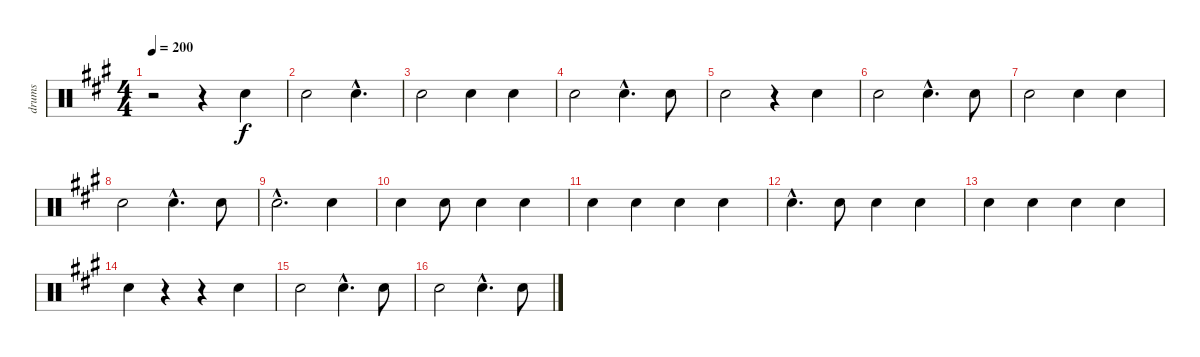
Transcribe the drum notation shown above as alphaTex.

\track ("drums" "drums") {instrument percussion}
\staff {score}
\articulation defaults
\ts (4 4)
\tempo 200
\clef neutral
\ks a
r.2{dy f} r.4 "Electric Snare (hit)".4 |
"Electric Snare (hit)".2 "Electric Snare (hit)"{hac}.4{d} |
"Electric Snare (hit)".2 "Electric Snare (hit)".4 "Electric Snare (hit)".4 |
"Electric Snare (hit)".2 "Electric Snare (hit)"{hac}.4{d} "Electric Snare (hit)".8 |
"Electric Snare (hit)".2 r.4 "Electric Snare (hit)".4 |
"Electric Snare (hit)".2 "Electric Snare (hit)"{hac}.4{d} "Electric Snare (hit)".8 |
"Electric Snare (hit)".2 "Electric Snare (hit)".4 "Electric Snare (hit)".4 |
"Electric Snare (hit)".2 "Electric Snare (hit)"{hac}.4{d} "Electric Snare (hit)".8 |
"Electric Snare (hit)"{hac}.2{d} "Electric Snare (hit)".4 |
"Electric Snare (hit)".4 "Electric Snare (hit)".8 "Electric Snare (hit)".4 "Electric Snare (hit)".4 |
"Electric Snare (hit)".4 "Electric Snare (hit)".4 "Electric Snare (hit)".4 "Electric Snare (hit)".4 |
"Electric Snare (hit)"{hac}.4{d} "Electric Snare (hit)".8 "Electric Snare (hit)".4 "Electric Snare (hit)".4 |
"Electric Snare (hit)".4 "Electric Snare (hit)".4 "Electric Snare (hit)".4 "Electric Snare (hit)".4 |
"Electric Snare (hit)".4 r.4 r.4 "Electric Snare (hit)".4 |
"Electric Snare (hit)".2 "Electric Snare (hit)"{hac}.4{d} "Electric Snare (hit)".8 |
"Electric Snare (hit)".2 "Electric Snare (hit)"{hac}.4{d} "Electric Snare (hit)".8
